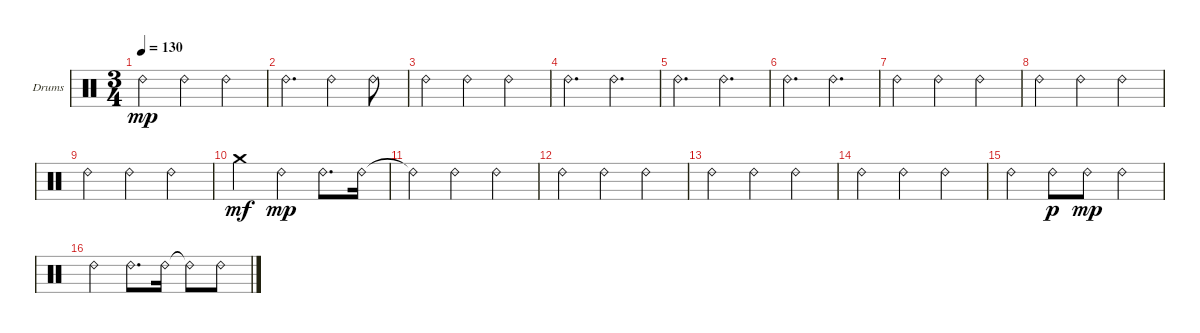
\bracketExtendMode groupsimilarinstruments
\firstSystemTrackNameOrientation horizontal
\otherSystemsTrackNameOrientation horizontal
\track ("OH" "Drums") {instrument percussion}
\staff {score}
\articulation defaults
\ts (3 4)
\tempo 130
\clef neutral
\ks c "Ride (bell) 2".4{dy mp} "Ride (bell) 2".4 "Ride (bell) 2".4
|
"Ride (bell) 2".4{d} "Ride (bell) 2".4 "Ride (bell) 2".8 |
"Ride (bell) 2".4 "Ride (bell) 2".4 "Ride (bell) 2".4 |
"Ride (bell) 2".4{d} "Ride (bell) 2".4{d} |
"Ride (bell) 2".4{d} "Ride (bell) 2".4{d} |
"Ride (bell) 2".4{d} "Ride (bell) 2".4{d} |
"Ride (bell) 2".4 "Ride (bell) 2".4 "Ride (bell) 2".4 |
"Ride (bell) 2".4 "Ride (bell) 2".4 "Ride (bell) 2".4 |
"Ride (bell) 2".4 "Ride (bell) 2".4 "Ride (bell) 2".4 |
"Crash medium (hit)".4{dy mf} "Ride (bell) 2".4{dy mp} "Ride (bell) 2".8{d} "Ride (bell) 2".16 |
"Ride (bell) 2"{t}.4 "Ride (bell) 2".4 "Ride (bell) 2".4 |
"Ride (bell) 2".4 "Ride (bell) 2".4 "Ride (bell) 2".4 |
"Ride (bell) 2".4 "Ride (bell) 2".4 "Ride (bell) 2".4 |
"Ride (bell) 2".4 "Ride (bell) 2".4 "Ride (bell) 2".4 |
"Ride (bell) 2".4 "Ride (bell) 2".8{dy p} "Ride (bell) 2".8{dy mp} "Ride (bell) 2".4 |
"Ride (bell) 2".4 "Ride (bell) 2".8{d} "Ride (bell) 2".16 "Ride (bell) 2"{t}.8 "Ride (bell) 2".8
